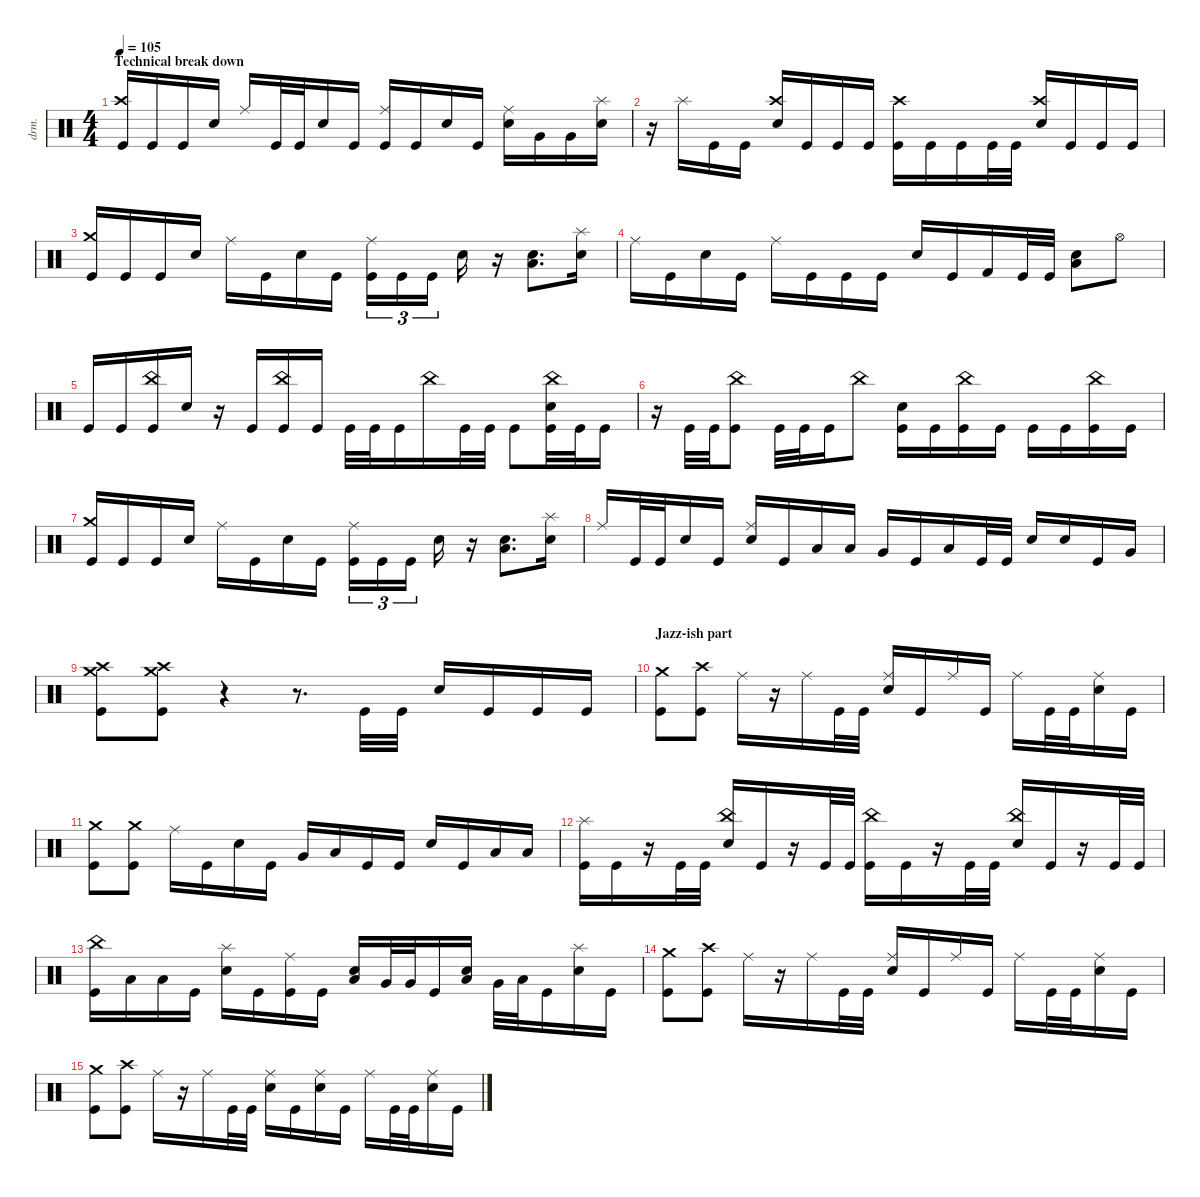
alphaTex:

\defaultSystemsLayout 4
\hideDynamics
\bracketExtendMode nobrackets
\otherSystemsTrackNameOrientation horizontal
\track ("Drumkit" "drm.") {instrument percussion}
\staff {score}
\articulation defaults
\ts (4 4)
\section ("" "Technical break down")
\tempo 105
\clef neutral
\ks c
("Crash high (hit)" "Kick (hit)").16{dy mf beam Up} "Kick (hit)".16{beam Up} "Kick (hit)".16{beam Up} "Electric Snare (hit)".16{beam Up} "Ride (middle)".16{beam Up} "Kick (hit)".32{beam Up} "Kick (hit)".32{beam Up} "Electric Snare (hit)".16{beam Up} "Kick (hit)".16{beam Up} ("Kick (hit)" "Ride (middle)").16{beam Up} "Kick (hit)".16{beam Up} "Electric Snare (hit)".16{beam Up} "Kick (hit)".16{beam Up} ("Electric Snare (hit)" "Ride (middle)").16{beam Down} "Very Low Tom (hit)".16{beam Down} "Very Low Tom (hit)".16{beam Down} ("Splash (hit)" "Electric Snare (hit)").16{beam Down} |
r.16{beam Down} "Splash (hit)".16{beam Down} "Kick (hit)".16{beam Down} "Kick (hit)".16{beam Down} ("Crash high (hit)" "Electric Snare (hit)").16{beam Up} "Kick (hit)".16{beam Up} "Kick (hit)".16{beam Up} "Kick (hit)".16{beam Up} ("Crash high (hit)" "Kick (hit)").16{beam Down} "Kick (hit)".16{beam Down} "Kick (hit)".16{beam Down} "Kick (hit)".32{beam Down} "Kick (hit)".32{beam Down} ("Crash high (hit)" "Electric Snare (hit)").16{beam Up} "Kick (hit)".16{beam Up} "Kick (hit)".16{beam Up} "Kick (hit)".16{beam Up} |
("Crash medium (hit)" "Kick (hit)").16{beam Up} "Kick (hit)".16{beam Up} "Kick (hit)".16{beam Up} "Electric Snare (hit)".16{beam Up} "Ride (middle)".16{beam Down} "Kick (hit)".16{beam Down} "Electric Snare (hit)".16{beam Down} "Kick (hit)".16{beam Down} ("Ride (middle)" "Kick (hit)").16{tu (3 2) beam Down} "Kick (hit)".16{tu (3 2) beam Down} "Kick (hit)".16{tu (3 2) beam Down} "Electric Snare (hit)".16{beam Down} r.16{beam Down} ("Electric Snare (hit)" "Low Floor Tom (hit)").8{d beam Down} ("Splash (hit)" "Electric Snare (hit)").16{beam Down} |
"Ride (middle)".16{beam Down} "Kick (hit)".16{beam Down} "Electric Snare (hit)".16{beam Down} "Kick (hit)".16{beam Down} "Ride (middle)".16{beam Down} "Kick (hit)".16{beam Down} "Kick (hit)".16{beam Down} "Kick (hit)".16{beam Down} "Electric Snare (hit)".16{beam Up} "Kick (hit)".16{beam Up} "Kick (hit) 2".16{beam Up} "Kick (hit)".32{beam Up} "Kick (hit)".32{beam Up} ("Electric Snare (hit)" "Low Floor Tom (hit)").8{beam Down} "Hi-Hat (open)".8{beam Down} |
"Kick (hit)".16{beam Up} "Kick (hit)".16{beam Up} ("Kick (hit)" "China (hit)").16{beam Up} "Electric Snare (hit)".16{beam Up} r.16{beam Up} "Kick (hit)".16{beam Down} ("Kick (hit)" "China (hit)").16{beam Down} "Kick (hit)".16{beam Down} "Kick (hit)".32{beam Down} "Kick (hit)".32{beam Down} "Kick (hit)".16{beam Down} "China (hit)".16{beam Down} "Kick (hit)".32{beam Down} "Kick (hit)".32{beam Down} "Kick (hit)".8{beam Down} ("Kick (hit)" "China (hit)" "Electric Snare (hit)").32{beam Down} "Kick (hit)".32{beam Down} "Kick (hit)".16{beam Down} |
r.16{beam Down} "Kick (hit)".32{beam Down} "Kick (hit)".32{beam Down} ("Kick (hit)" "China (hit)").8{beam Down} "Kick (hit)".32{beam Down} "Kick (hit)".32{beam Down} "Kick (hit)".16{beam Down} "China (hit)".8{beam Down} ("Kick (hit)" "Electric Snare (hit)").16{beam Down} "Kick (hit)".16{beam Down} ("Kick (hit)" "China (hit)").16{beam Down} "Kick (hit)".16{beam Down} "Kick (hit)".16{beam Down} "Kick (hit)".16{beam Down} ("Kick (hit)" "China (hit)").16{beam Down} "Kick (hit)".16{beam Down} |
("Crash medium (hit)" "Kick (hit)").16{beam Up} "Kick (hit)".16{beam Up} "Kick (hit)".16{beam Up} "Electric Snare (hit)".16{beam Up} "Ride (middle)".16{beam Down} "Kick (hit)".16{beam Down} "Electric Snare (hit)".16{beam Down} "Kick (hit)".16{beam Down} ("Ride (middle)" "Kick (hit)").16{tu (3 2) beam Down} "Kick (hit)".16{tu (3 2) beam Down} "Kick (hit)".16{tu (3 2) beam Down} "Electric Snare (hit)".16{beam Down} r.16{beam Down} ("Electric Snare (hit)" "Low Floor Tom (hit)").8{d beam Down} ("Splash (hit)" "Electric Snare (hit)").16{beam Down} |
"Ride (middle)".16{beam Up} "Kick (hit)".32{beam Up} "Kick (hit)".32{beam Up} "Electric Snare (hit)".16{beam Up} "Kick (hit)".16{beam Up} ("Ride (middle)" "Electric Snare (hit)").16{beam Up} "Kick (hit)".16{beam Up} "Low Tom (hit)".16{beam Up} "Low Tom (hit)".16{beam Up} "Very Low Tom (hit)".16{beam Up} "Kick (hit)".16{beam Up} "Low Floor Tom (hit)".16{beam Up} "Kick (hit)".32{beam Up} "Kick (hit)".32{beam Up} "Electric Snare (hit)".16{beam Up} "Electric Snare (hit)".16{beam Up} "Kick (hit)".16{beam Up} "Very Low Tom (hit)".16{beam Up} |
("Crash high (hit)" "Crash medium (hit)" "Kick (hit)").8{beam Down} ("Crash high (hit)" "Crash medium (hit)" "Kick (hit)").8{beam Down} r.4{beam Down} r.8{d beam Down} "Kick (hit)".32{beam Up} "Kick (hit)".32{beam Up} "Electric Snare (hit)".16{beam Up} "Kick (hit)".16{beam Up} "Kick (hit)".16{beam Up} "Kick (hit)".16{beam Up} |
\section ("" "Jazz-ish part")
("Crash medium (hit)" "Kick (hit)").8{beam Down} ("Kick (hit)" "Crash high (hit)").8{beam Down} "Ride (middle)".16{beam Down} r.16{beam Down} "Ride (middle)".16{beam Down} "Kick (hit)".32{beam Down} "Kick (hit)".32{beam Down} ("Ride (middle)" "Electric Snare (hit)").16{beam Up} "Kick (hit)".16{beam Up} "Ride (middle)".16{beam Up} "Kick (hit)".16{beam Up} "Ride (middle)".16{beam Down} "Kick (hit)".32{beam Down} "Kick (hit)".32{beam Down} ("Ride (middle)" "Electric Snare (hit)").16{beam Down} "Kick (hit)".16{beam Down} |
("Crash medium (hit)" "Kick (hit)").8{beam Down} ("Kick (hit)" "Crash medium (hit)").8{beam Down} "Ride (middle)".16{beam Down} "Kick (hit)".16{beam Down} "Electric Snare (hit)".16{beam Down} "Kick (hit)".16{beam Down} "Very Low Tom (hit)".16{beam Up} "Low Tom (hit)".16{beam Up} "Kick (hit)".16{beam Up} "Kick (hit)".16{beam Up} "Electric Snare (hit)".16{beam Up} "Kick (hit)".16{beam Up} "Low Floor Tom (hit)".16{beam Up} "Low Floor Tom (hit)".16{beam Up} |
("Splash (hit)" "Kick (hit)").16{beam Down} "Kick (hit)".16{beam Down} r.16{beam Down} "Kick (hit)".32{beam Down} "Kick (hit)".32{beam Down} ("Electric Snare (hit)" "China (hit)").16{beam Up} "Kick (hit)".16{beam Up} r.16{beam Up} "Kick (hit)".32{beam Up} "Kick (hit)".32{beam Up} ("Kick (hit)" "China (hit)").16{beam Down} "Kick (hit)".16{beam Down} r.16{beam Down} "Kick (hit)".32{beam Down} "Kick (hit)".32{beam Down} ("China (hit)" "Electric Snare (hit)").16{beam Up} "Kick (hit)".16{beam Up} r.16{beam Up} "Kick (hit)".32{beam Up} "Kick (hit)".32{beam Up} |
("China (hit)" "Kick (hit)").16{beam Down} "Low Tom (hit)".16{beam Down} "Low Tom (hit)".16{beam Down} "Kick (hit)".16{beam Down} ("Splash (hit)" "Electric Snare (hit)").16{beam Down} "Kick (hit)".16{beam Down} ("Kick (hit)" "Ride (middle)").16{beam Down} "Kick (hit)".16{beam Down} ("Electric Snare (hit)" "Low Floor Tom (hit)").16{beam Up} "Very Low Tom (hit)".32{beam Up} "Very Low Tom (hit)".32{beam Up} "Kick (hit)".16{beam Up} ("Electric Snare (hit)" "Low Floor Tom (hit)").16{beam Up} "Very Low Tom (hit)".32{beam Down} "Low Tom (hit)".32{beam Down} "Kick (hit)".16{beam Down} ("Electric Snare (hit)" "Splash (hit)").16{beam Down} "Kick (hit)".16{beam Down} |
("Crash medium (hit)" "Kick (hit)").8{beam Down} ("Kick (hit)" "Crash high (hit)").8{beam Down} "Ride (middle)".16{beam Down} r.16{beam Down} "Ride (middle)".16{beam Down} "Kick (hit)".32{beam Down} "Kick (hit)".32{beam Down} ("Ride (middle)" "Electric Snare (hit)").16{beam Up} "Kick (hit)".16{beam Up} "Ride (middle)".16{beam Up} "Kick (hit)".16{beam Up} "Ride (middle)".16{beam Down} "Kick (hit)".32{beam Down} "Kick (hit)".32{beam Down} ("Ride (middle)" "Electric Snare (hit)").16{beam Down} "Kick (hit)".16{beam Down} |
("Crash medium (hit)" "Kick (hit)").8{beam Down} ("Kick (hit)" "Crash high (hit)").8{beam Down} "Ride (middle)".16{beam Down} r.16{beam Down} "Ride (middle)".16{beam Down} "Kick (hit)".32{beam Down} "Kick (hit)".32{beam Down} ("Ride (middle)" "Electric Snare (hit)").16{beam Down} "Kick (hit)".16{beam Down} ("Ride (middle)" "Electric Snare (hit)").16{beam Down} "Kick (hit)".16{beam Down} "Ride (middle)".16{beam Down} "Kick (hit)".32{beam Down} "Kick (hit)".32{beam Down} ("Ride (middle)" "Electric Snare (hit)").16{beam Down} "Kick (hit)".16{beam Down}
